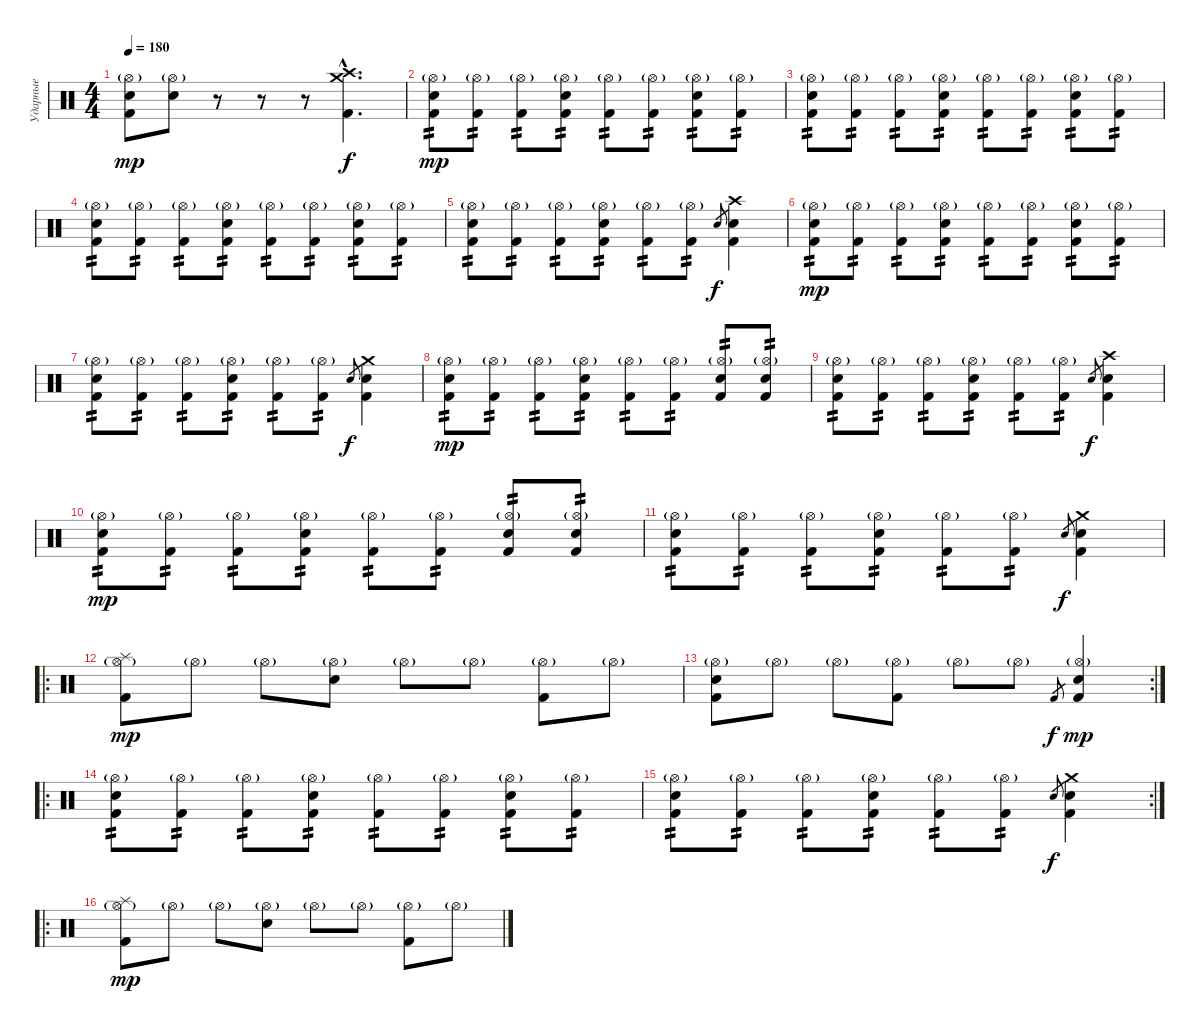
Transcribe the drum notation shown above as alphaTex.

\track ("Ударные" "Ударные") {instrument percussion}
\staff {score}
\articulation defaults
\ts (4 4)
\tempo 180
\clef neutral
\ks c
("Electric Snare (hit)" "Hi-Hat (open)"{g} "Kick (hit) 2").8{dy mp} ("Electric Snare (hit)" "Hi-Hat (open)"{g}).8 r.8 r.8 r.8 ("Crash high (hit)"{hac} "Crash medium (hit)"{hac} "Kick (hit) 2"{hac}).4{d dy f} |
("Electric Snare (hit)" "Hi-Hat (open)"{g} "Kick (hit) 2").8{tp 2 dy mp} ("Hi-Hat (open)"{g} "Kick (hit) 2").8{tp 2} ("Hi-Hat (open)"{g} "Kick (hit) 2").8{tp 2} ("Electric Snare (hit)" "Hi-Hat (open)"{g} "Kick (hit) 2").8{tp 2} ("Hi-Hat (open)"{g} "Kick (hit) 2").8{tp 2} ("Hi-Hat (open)"{g} "Kick (hit) 2").8{tp 2} ("Electric Snare (hit)" "Hi-Hat (open)"{g} "Kick (hit) 2").8{tp 2} ("Hi-Hat (open)"{g} "Kick (hit) 2").8{tp 2} |
("Electric Snare (hit)" "Hi-Hat (open)"{g} "Kick (hit) 2").8{tp 2} ("Hi-Hat (open)"{g} "Kick (hit) 2").8{tp 2} ("Hi-Hat (open)"{g} "Kick (hit) 2").8{tp 2} ("Electric Snare (hit)" "Hi-Hat (open)"{g} "Kick (hit) 2").8{tp 2} ("Hi-Hat (open)"{g} "Kick (hit) 2").8{tp 2} ("Hi-Hat (open)"{g} "Kick (hit) 2").8{tp 2} ("Electric Snare (hit)" "Hi-Hat (open)"{g} "Kick (hit) 2").8{tp 2} ("Hi-Hat (open)"{g} "Kick (hit) 2").8{tp 2} |
("Electric Snare (hit)" "Hi-Hat (open)"{g} "Kick (hit) 2").8{tp 2} ("Hi-Hat (open)"{g} "Kick (hit) 2").8{tp 2} ("Hi-Hat (open)"{g} "Kick (hit) 2").8{tp 2} ("Electric Snare (hit)" "Hi-Hat (open)"{g} "Kick (hit) 2").8{tp 2} ("Hi-Hat (open)"{g} "Kick (hit) 2").8{tp 2} ("Hi-Hat (open)"{g} "Kick (hit) 2").8{tp 2} ("Electric Snare (hit)" "Hi-Hat (open)"{g} "Kick (hit) 2").8{tp 2} ("Hi-Hat (open)"{g} "Kick (hit) 2").8{tp 2} |
("Electric Snare (hit)" "Hi-Hat (open)"{g} "Kick (hit) 2").8{tp 2} ("Hi-Hat (open)"{g} "Kick (hit) 2").8{tp 2} ("Hi-Hat (open)"{g} "Kick (hit) 2").8{tp 2} ("Electric Snare (hit)" "Hi-Hat (open)"{g} "Kick (hit) 2").8{tp 2} ("Hi-Hat (open)"{g} "Kick (hit) 2").8{tp 2} ("Hi-Hat (open)"{g} "Kick (hit) 2").8{tp 2} "Electric Snare (hit)".8{gr dy f} ("Crash high (hit)" "Electric Snare (hit)" "Kick (hit) 2").4 |
("Electric Snare (hit)" "Hi-Hat (open)"{g} "Kick (hit) 2").8{tp 2 dy mp} ("Hi-Hat (open)"{g} "Kick (hit) 2").8{tp 2} ("Hi-Hat (open)"{g} "Kick (hit) 2").8{tp 2} ("Electric Snare (hit)" "Hi-Hat (open)"{g} "Kick (hit) 2").8{tp 2} ("Hi-Hat (open)"{g} "Kick (hit) 2").8{tp 2} ("Hi-Hat (open)"{g} "Kick (hit) 2").8{tp 2} ("Electric Snare (hit)" "Hi-Hat (open)"{g} "Kick (hit) 2").8{tp 2} ("Hi-Hat (open)"{g} "Kick (hit) 2").8{tp 2} |
("Electric Snare (hit)" "Hi-Hat (open)"{g} "Kick (hit) 2").8{tp 2} ("Hi-Hat (open)"{g} "Kick (hit) 2").8{tp 2} ("Hi-Hat (open)"{g} "Kick (hit) 2").8{tp 2} ("Electric Snare (hit)" "Hi-Hat (open)"{g} "Kick (hit) 2").8{tp 2} ("Hi-Hat (open)"{g} "Kick (hit) 2").8{tp 2} ("Hi-Hat (open)"{g} "Kick (hit) 2").8{tp 2} "Electric Snare (hit)".8{gr dy f} ("Crash medium (hit)" "Electric Snare (hit)" "Kick (hit) 2").4 |
("Electric Snare (hit)" "Hi-Hat (open)"{g} "Kick (hit) 2").8{tp 2 dy mp} ("Hi-Hat (open)"{g} "Kick (hit) 2").8{tp 2} ("Hi-Hat (open)"{g} "Kick (hit) 2").8{tp 2} ("Electric Snare (hit)" "Hi-Hat (open)"{g} "Kick (hit) 2").8{tp 2} ("Hi-Hat (open)"{g} "Kick (hit) 2").8{tp 2} ("Hi-Hat (open)"{g} "Kick (hit) 2").8{tp 2} ("Electric Snare (hit)" "Hi-Hat (open)"{g} "Kick (hit) 2").8{tp 2} ("Electric Snare (hit)" "Hi-Hat (open)"{g} "Kick (hit) 2").8{tp 2} |
("Electric Snare (hit)" "Hi-Hat (open)"{g} "Kick (hit) 2").8{tp 2} ("Hi-Hat (open)"{g} "Kick (hit) 2").8{tp 2} ("Hi-Hat (open)"{g} "Kick (hit) 2").8{tp 2} ("Electric Snare (hit)" "Hi-Hat (open)"{g} "Kick (hit) 2").8{tp 2} ("Hi-Hat (open)"{g} "Kick (hit) 2").8{tp 2} ("Hi-Hat (open)"{g} "Kick (hit) 2").8{tp 2} "Electric Snare (hit)".8{gr dy f} ("Crash high (hit)" "Electric Snare (hit)" "Kick (hit) 2").4 |
("Electric Snare (hit)" "Hi-Hat (open)"{g} "Kick (hit) 2").8{tp 2 dy mp} ("Hi-Hat (open)"{g} "Kick (hit) 2").8{tp 2} ("Hi-Hat (open)"{g} "Kick (hit) 2").8{tp 2} ("Electric Snare (hit)" "Hi-Hat (open)"{g} "Kick (hit) 2").8{tp 2} ("Hi-Hat (open)"{g} "Kick (hit) 2").8{tp 2} ("Hi-Hat (open)"{g} "Kick (hit) 2").8{tp 2} ("Electric Snare (hit)" "Hi-Hat (open)"{g} "Kick (hit) 2").8{tp 2} ("Electric Snare (hit)" "Hi-Hat (open)"{g} "Kick (hit) 2").8{tp 2} |
("Electric Snare (hit)" "Hi-Hat (open)"{g} "Kick (hit) 2").8{tp 2} ("Hi-Hat (open)"{g} "Kick (hit) 2").8{tp 2} ("Hi-Hat (open)"{g} "Kick (hit) 2").8{tp 2} ("Electric Snare (hit)" "Hi-Hat (open)"{g} "Kick (hit) 2").8{tp 2} ("Hi-Hat (open)"{g} "Kick (hit) 2").8{tp 2} ("Hi-Hat (open)"{g} "Kick (hit) 2").8{tp 2} "Electric Snare (hit)".8{gr dy f} ("Crash medium (hit)" "Electric Snare (hit)" "Kick (hit) 2").4 |
\ro
("Splash (hit)" "Hi-Hat (open)"{g} "Kick (hit) 2").8{dy mp} "Hi-Hat (open)"{g}.8 "Hi-Hat (open)"{g}.8 ("Electric Snare (hit)" "Hi-Hat (open)"{g}).8 "Hi-Hat (open)"{g}.8 "Hi-Hat (open)"{g}.8 ("Hi-Hat (open)"{g} "Kick (hit) 2").8 "Hi-Hat (open)"{g}.8 |
\rc 2
("Electric Snare (hit)" "Hi-Hat (open)"{g} "Kick (hit) 2").8 "Hi-Hat (open)"{g}.8 "Hi-Hat (open)"{g}.8 ("Hi-Hat (open)"{g} "Kick (hit) 2").8 "Hi-Hat (open)"{g}.8 "Hi-Hat (open)"{g}.8 "Kick (hit) 2".8{gr dy f} ("Electric Snare (hit)" "Hi-Hat (open)"{g} "Kick (hit) 2").4{dy mp} |
\ro
("Electric Snare (hit)" "Hi-Hat (open)"{g} "Kick (hit) 2").8{tp 2} ("Hi-Hat (open)"{g} "Kick (hit) 2").8{tp 2} ("Hi-Hat (open)"{g} "Kick (hit) 2").8{tp 2} ("Electric Snare (hit)" "Hi-Hat (open)"{g} "Kick (hit) 2").8{tp 2} ("Hi-Hat (open)"{g} "Kick (hit) 2").8{tp 2} ("Hi-Hat (open)"{g} "Kick (hit) 2").8{tp 2} ("Electric Snare (hit)" "Hi-Hat (open)"{g} "Kick (hit) 2").8{tp 2} ("Hi-Hat (open)"{g} "Kick (hit) 2").8{tp 2} |
\rc 2
("Electric Snare (hit)" "Hi-Hat (open)"{g} "Kick (hit) 2").8{tp 2} ("Hi-Hat (open)"{g} "Kick (hit) 2").8{tp 2} ("Hi-Hat (open)"{g} "Kick (hit) 2").8{tp 2} ("Electric Snare (hit)" "Hi-Hat (open)"{g} "Kick (hit) 2").8{tp 2} ("Hi-Hat (open)"{g} "Kick (hit) 2").8{tp 2} ("Hi-Hat (open)"{g} "Kick (hit) 2").8{tp 2} "Electric Snare (hit)".8{gr dy f} ("Crash medium (hit)" "Electric Snare (hit)" "Kick (hit) 2").4 |
\ro
("Splash (hit)" "Hi-Hat (open)"{g} "Kick (hit) 2").8{dy mp} "Hi-Hat (open)"{g}.8 "Hi-Hat (open)"{g}.8 ("Electric Snare (hit)" "Hi-Hat (open)"{g}).8 "Hi-Hat (open)"{g}.8 "Hi-Hat (open)"{g}.8 ("Hi-Hat (open)"{g} "Kick (hit) 2").8 "Hi-Hat (open)"{g}.8
